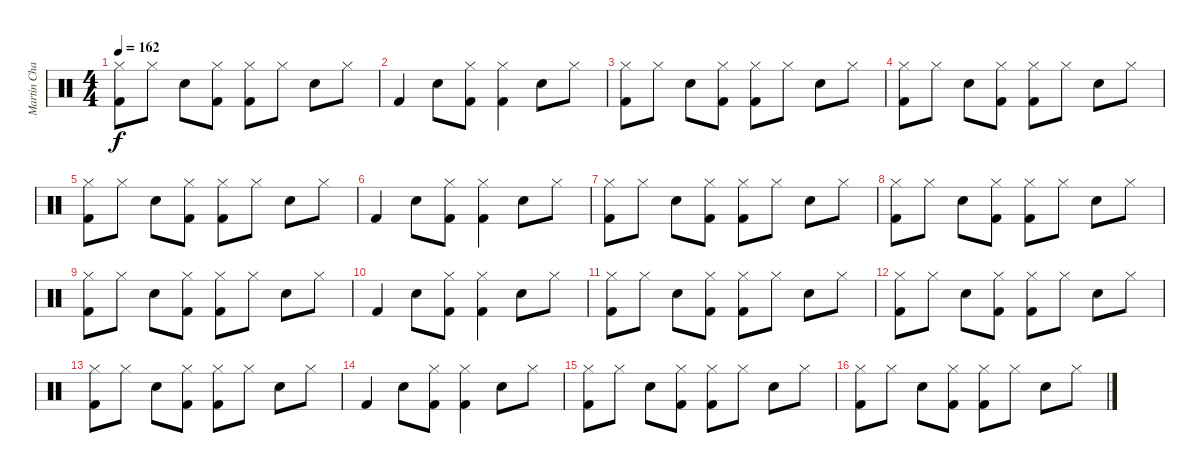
\track ("Martin Chambers" "Martin Cha") {instrument percussion}
\staff {score}
\articulation defaults
\ts (4 4)
\tempo 162
\clef neutral
\ks c
("Hi-Hat (closed)" "Kick (hit) 2").8{dy f} "Hi-Hat (closed)".8 "Snare (hit) 2".8 ("Hi-Hat (closed)" "Kick (hit) 2").8 ("Hi-Hat (closed)" "Kick (hit) 2").8 "Hi-Hat (closed)".8 "Snare (hit) 2".8 "Hi-Hat (closed)".8 |
"Kick (hit) 2".4 "Snare (hit) 2".8 ("Hi-Hat (closed)" "Kick (hit) 2").8 ("Hi-Hat (closed)" "Kick (hit) 2").4 "Snare (hit) 2".8 "Hi-Hat (closed)".8 |
("Hi-Hat (closed)" "Kick (hit) 2").8 "Hi-Hat (closed)".8 "Snare (hit) 2".8 ("Hi-Hat (closed)" "Kick (hit) 2").8 ("Hi-Hat (closed)" "Kick (hit) 2").8 "Hi-Hat (closed)".8 "Snare (hit) 2".8 "Hi-Hat (closed)".8 |
("Hi-Hat (closed)" "Kick (hit) 2").8 "Hi-Hat (closed)".8 "Snare (hit) 2".8 ("Hi-Hat (closed)" "Kick (hit) 2").8 ("Hi-Hat (closed)" "Kick (hit) 2").8 "Hi-Hat (closed)".8 "Snare (hit) 2".8 "Hi-Hat (closed)".8 |
("Hi-Hat (closed)" "Kick (hit) 2").8 "Hi-Hat (closed)".8 "Snare (hit) 2".8 ("Hi-Hat (closed)" "Kick (hit) 2").8 ("Hi-Hat (closed)" "Kick (hit) 2").8 "Hi-Hat (closed)".8 "Snare (hit) 2".8 "Hi-Hat (closed)".8 |
"Kick (hit) 2".4 "Snare (hit) 2".8 ("Hi-Hat (closed)" "Kick (hit) 2").8 ("Hi-Hat (closed)" "Kick (hit) 2").4 "Snare (hit) 2".8 "Hi-Hat (closed)".8 |
("Hi-Hat (closed)" "Kick (hit) 2").8 "Hi-Hat (closed)".8 "Snare (hit) 2".8 ("Hi-Hat (closed)" "Kick (hit) 2").8 ("Hi-Hat (closed)" "Kick (hit) 2").8 "Hi-Hat (closed)".8 "Snare (hit) 2".8 "Hi-Hat (closed)".8 |
("Hi-Hat (closed)" "Kick (hit) 2").8 "Hi-Hat (closed)".8 "Snare (hit) 2".8 ("Hi-Hat (closed)" "Kick (hit) 2").8 ("Hi-Hat (closed)" "Kick (hit) 2").8 "Hi-Hat (closed)".8 "Snare (hit) 2".8 "Hi-Hat (closed)".8 |
("Hi-Hat (closed)" "Kick (hit) 2").8 "Hi-Hat (closed)".8 "Snare (hit) 2".8 ("Hi-Hat (closed)" "Kick (hit) 2").8 ("Hi-Hat (closed)" "Kick (hit) 2").8 "Hi-Hat (closed)".8 "Snare (hit) 2".8 "Hi-Hat (closed)".8 |
"Kick (hit) 2".4 "Snare (hit) 2".8 ("Hi-Hat (closed)" "Kick (hit) 2").8 ("Hi-Hat (closed)" "Kick (hit) 2").4 "Snare (hit) 2".8 "Hi-Hat (closed)".8 |
("Hi-Hat (closed)" "Kick (hit) 2").8 "Hi-Hat (closed)".8 "Snare (hit) 2".8 ("Hi-Hat (closed)" "Kick (hit) 2").8 ("Hi-Hat (closed)" "Kick (hit) 2").8 "Hi-Hat (closed)".8 "Snare (hit) 2".8 "Hi-Hat (closed)".8 |
("Hi-Hat (closed)" "Kick (hit) 2").8 "Hi-Hat (closed)".8 "Snare (hit) 2".8 ("Hi-Hat (closed)" "Kick (hit) 2").8 ("Hi-Hat (closed)" "Kick (hit) 2").8 "Hi-Hat (closed)".8 "Snare (hit) 2".8 "Hi-Hat (closed)".8 |
("Hi-Hat (closed)" "Kick (hit) 2").8 "Hi-Hat (closed)".8 "Snare (hit) 2".8 ("Hi-Hat (closed)" "Kick (hit) 2").8 ("Hi-Hat (closed)" "Kick (hit) 2").8 "Hi-Hat (closed)".8 "Snare (hit) 2".8 "Hi-Hat (closed)".8 |
"Kick (hit) 2".4 "Snare (hit) 2".8 ("Hi-Hat (closed)" "Kick (hit) 2").8 ("Hi-Hat (closed)" "Kick (hit) 2").4 "Snare (hit) 2".8 "Hi-Hat (closed)".8 |
("Hi-Hat (closed)" "Kick (hit) 2").8 "Hi-Hat (closed)".8 "Snare (hit) 2".8 ("Hi-Hat (closed)" "Kick (hit) 2").8 ("Hi-Hat (closed)" "Kick (hit) 2").8 "Hi-Hat (closed)".8 "Snare (hit) 2".8 "Hi-Hat (closed)".8 |
("Hi-Hat (closed)" "Kick (hit) 2").8 "Hi-Hat (closed)".8 "Snare (hit) 2".8 ("Hi-Hat (closed)" "Kick (hit) 2").8 ("Hi-Hat (closed)" "Kick (hit) 2").8 "Hi-Hat (closed)".8 "Snare (hit) 2".8 "Hi-Hat (closed)".8
